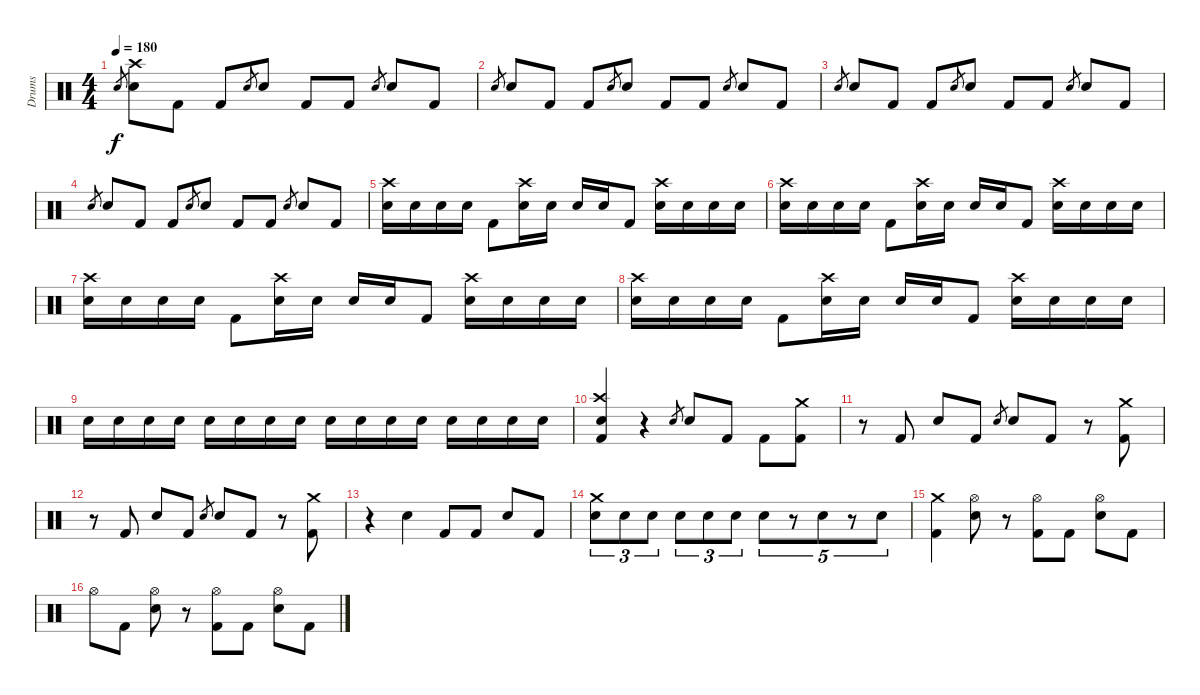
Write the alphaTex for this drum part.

\track ("Drums" "Drums") {instrument percussion}
\staff {score}
\articulation defaults
\ts (4 4)
\tempo 180
\clef neutral
\ks c "Electric Snare (hit)".8{gr dy f}
("Crash high (hit)" "Electric Snare (hit)").8 "Kick (hit) 2".8 "Kick (hit) 2".8 "Electric Snare (hit)".8{gr} "Electric Snare (hit)".8 "Kick (hit) 2".8 "Kick (hit) 2".8 "Electric Snare (hit)".8{gr} "Electric Snare (hit)".8 "Kick (hit) 2".8 |
"Electric Snare (hit)".8{gr} "Electric Snare (hit)".8 "Kick (hit) 2".8 "Kick (hit) 2".8 "Electric Snare (hit)".8{gr} "Electric Snare (hit)".8 "Kick (hit) 2".8 "Kick (hit) 2".8 "Electric Snare (hit)".8{gr} "Electric Snare (hit)".8 "Kick (hit) 2".8 |
"Electric Snare (hit)".8{gr} "Electric Snare (hit)".8 "Kick (hit) 2".8 "Kick (hit) 2".8 "Electric Snare (hit)".8{gr} "Electric Snare (hit)".8 "Kick (hit) 2".8 "Kick (hit) 2".8 "Electric Snare (hit)".8{gr} "Electric Snare (hit)".8 "Kick (hit) 2".8 |
"Electric Snare (hit)".8{gr} "Electric Snare (hit)".8 "Kick (hit) 2".8 "Kick (hit) 2".8 "Electric Snare (hit)".8{gr} "Electric Snare (hit)".8 "Kick (hit) 2".8 "Kick (hit) 2".8 "Electric Snare (hit)".8{gr} "Electric Snare (hit)".8 "Kick (hit) 2".8 |
("Crash high (hit)" "Electric Snare (hit)").16 "Electric Snare (hit)".16 "Electric Snare (hit)".16 "Electric Snare (hit)".16 "Kick (hit) 2".8 ("Crash high (hit)" "Electric Snare (hit)").16 "Electric Snare (hit)".16 "Electric Snare (hit)".16 "Electric Snare (hit)".16 "Kick (hit) 2".8 ("Crash high (hit)" "Electric Snare (hit)").16 "Electric Snare (hit)".16 "Electric Snare (hit)".16 "Electric Snare (hit)".16 |
("Crash high (hit)" "Electric Snare (hit)").16 "Electric Snare (hit)".16 "Electric Snare (hit)".16 "Electric Snare (hit)".16 "Kick (hit) 2".8 ("Crash high (hit)" "Electric Snare (hit)").16 "Electric Snare (hit)".16 "Electric Snare (hit)".16 "Electric Snare (hit)".16 "Kick (hit) 2".8 ("Crash high (hit)" "Electric Snare (hit)").16 "Electric Snare (hit)".16 "Electric Snare (hit)".16 "Electric Snare (hit)".16 |
("Crash high (hit)" "Electric Snare (hit)").16 "Electric Snare (hit)".16 "Electric Snare (hit)".16 "Electric Snare (hit)".16 "Kick (hit) 2".8 ("Crash high (hit)" "Electric Snare (hit)").16 "Electric Snare (hit)".16 "Electric Snare (hit)".16 "Electric Snare (hit)".16 "Kick (hit) 2".8 ("Crash high (hit)" "Electric Snare (hit)").16 "Electric Snare (hit)".16 "Electric Snare (hit)".16 "Electric Snare (hit)".16 |
("Crash high (hit)" "Electric Snare (hit)").16 "Electric Snare (hit)".16 "Electric Snare (hit)".16 "Electric Snare (hit)".16 "Kick (hit) 2".8 ("Crash high (hit)" "Electric Snare (hit)").16 "Electric Snare (hit)".16 "Electric Snare (hit)".16 "Electric Snare (hit)".16 "Kick (hit) 2".8 ("Crash high (hit)" "Electric Snare (hit)").16 "Electric Snare (hit)".16 "Electric Snare (hit)".16 "Electric Snare (hit)".16 |
"Electric Snare (hit)".16 "Electric Snare (hit)".16 "Electric Snare (hit)".16 "Electric Snare (hit)".16 "Electric Snare (hit)".16 "Electric Snare (hit)".16 "Electric Snare (hit)".16 "Electric Snare (hit)".16 "Electric Snare (hit)".16 "Electric Snare (hit)".16 "Electric Snare (hit)".16 "Electric Snare (hit)".16 "Electric Snare (hit)".16 "Electric Snare (hit)".16 "Electric Snare (hit)".16 "Electric Snare (hit)".16 |
("Crash high (hit)" "Electric Snare (hit)" "Kick (hit) 2").4 r.4 "Electric Snare (hit)".8{gr} "Electric Snare (hit)".8 "Kick (hit) 2".8 "Kick (hit) 2".8 ("Crash medium (hit)" "Kick (hit) 2").8 |
r.8 "Kick (hit) 2".8 "Electric Snare (hit)".8 "Kick (hit) 2".8 "Electric Snare (hit)".8{gr} "Electric Snare (hit)".8 "Kick (hit) 2".8 r.8 ("Crash medium (hit)" "Kick (hit) 2").8 |
r.8 "Kick (hit) 2".8 "Electric Snare (hit)".8 "Kick (hit) 2".8 "Electric Snare (hit)".8{gr} "Electric Snare (hit)".8 "Kick (hit) 2".8 r.8 ("Crash medium (hit)" "Kick (hit) 2").8 |
r.4 "Electric Snare (hit)".4 "Kick (hit) 2".8 "Kick (hit) 2".8 "Electric Snare (hit)".8 "Kick (hit) 2".8 |
("Crash medium (hit)" "Electric Snare (hit)").8{tu (3 2)} "Electric Snare (hit)".8{tu (3 2)} "Electric Snare (hit)".8{tu (3 2)} "Electric Snare (hit)".8{tu (3 2)} "Electric Snare (hit)".8{tu (3 2)} "Electric Snare (hit)".8{tu (3 2)} "Electric Snare (hit)".8{tu (5 4)} r.8{tu (5 4)} "Electric Snare (hit)".8{tu (5 4)} r.8{tu (5 4)} "Electric Snare (hit)".8{tu (5 4)} |
("Crash medium (hit)" "Kick (hit) 2").4 ("Hi-Hat (open)" "Electric Snare (hit)").8 r.8 ("Hi-Hat (open)" "Kick (hit) 2").8 "Kick (hit) 2".8 ("Hi-Hat (open)" "Electric Snare (hit)").8 "Kick (hit) 2".8 |
"Hi-Hat (open)".8 "Kick (hit) 2".8 ("Hi-Hat (open)" "Electric Snare (hit)").8 r.8 ("Hi-Hat (open)" "Kick (hit) 2").8 "Kick (hit) 2".8 ("Hi-Hat (open)" "Electric Snare (hit)").8 "Kick (hit) 2".8
